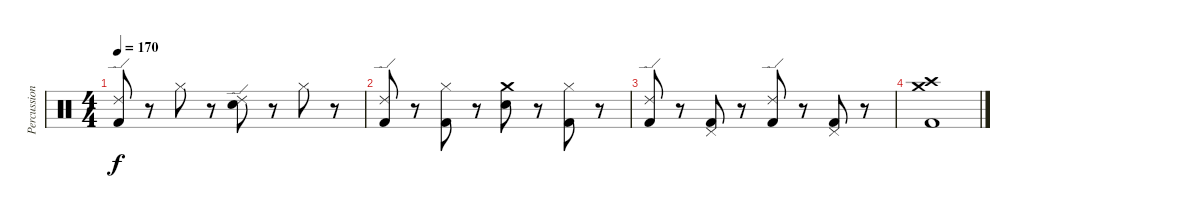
\track ("Percussion" "Percussion") {instrument percussion}
\staff {score}
\articulation defaults
\ts (4 4)
\tempo 170
\clef neutral
\ks c
("Ride (edge) 2" "Kick (hit) 2").8{dy f} r.8 "Hi-Hat (closed)".8 r.8 ("Ride (edge) 2" "Electric Snare (hit)").8 r.8 "Hi-Hat (closed)".8 r.8 |
("Ride (edge) 2" "Kick (hit) 2").8 r.8 ("Hi-Hat (closed)" "Kick (hit) 2").8 r.8 ("Crash medium (hit)" "Electric Snare (hit)").8 r.8 ("Hi-Hat (closed)" "Kick (hit) 2").8 r.8 |
("Ride (edge) 2" "Kick (hit) 2").8 r.8 ("Pedal Hi-Hat (hit)" "Kick (hit) 2").8 r.8 ("Ride (edge) 2" "Kick (hit) 2").8 r.8 ("Pedal Hi-Hat (hit)" "Kick (hit) 2").8 r.8 |
("Crash high (hit)" "Crash medium (hit)" "Kick (hit) 2").1
